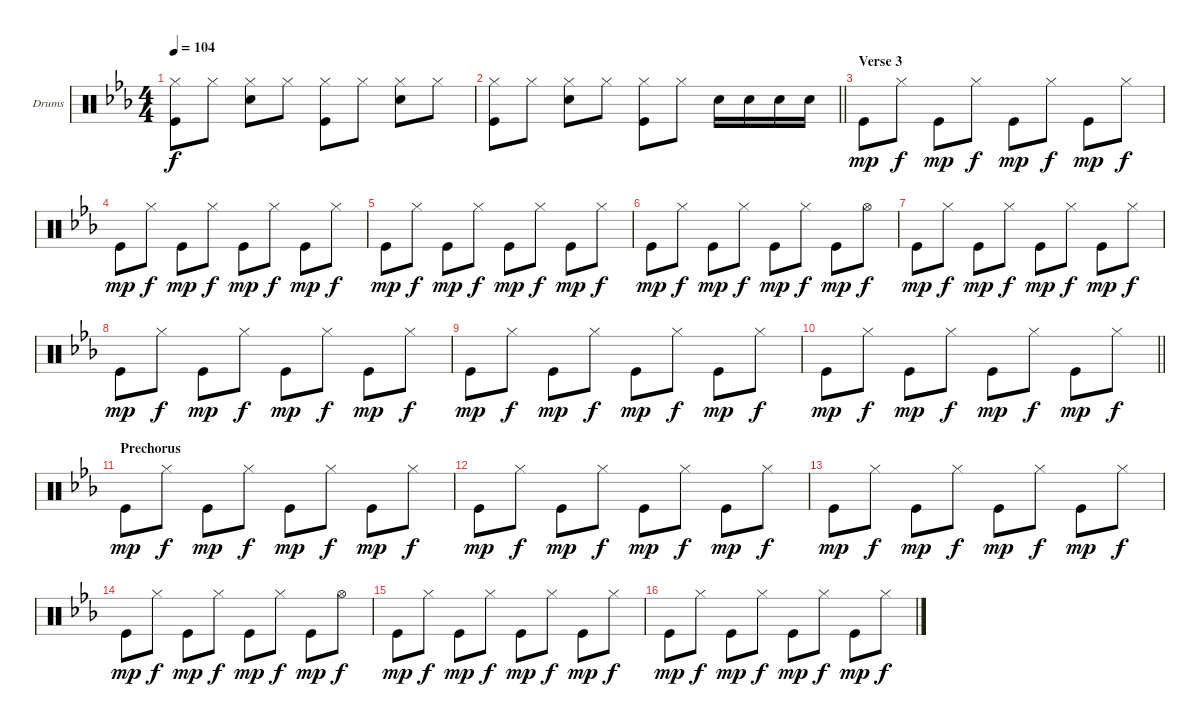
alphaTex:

\bracketExtendMode groupsimilarinstruments
\firstSystemTrackNameOrientation horizontal
\otherSystemsTrackNameOrientation horizontal
\track ("Drumkit" "Drums") {instrument percussion}
\staff {score}
\articulation defaults
\ts (4 4)
\tempo 104
\clef neutral
\ks eb
("Hi-Hat (closed)" "Kick (hit)").8{dy f} "Hi-Hat (closed)".8 ("Hi-Hat (closed)" "Snare (hit) 2").8 "Hi-Hat (closed)".8 ("Hi-Hat (closed)" "Kick (hit)").8 "Hi-Hat (closed)".8 ("Hi-Hat (closed)" "Snare (hit) 2").8 "Hi-Hat (closed)".8 |
\barLineRight lightlight
("Hi-Hat (closed)" "Kick (hit)").8 "Hi-Hat (closed)".8 ("Hi-Hat (closed)" "Snare (hit) 2").8 "Hi-Hat (closed)".8 ("Hi-Hat (closed)" "Kick (hit)").8 "Hi-Hat (closed)".8 "Snare (hit) 2".16 "Snare (hit) 2".16 "Snare (hit) 2".16 "Snare (hit) 2".16 |
\section ("" "Verse 3")
"Kick (hit)".8{dy mp} "Hi-Hat (closed)".8{dy f} "Kick (hit)".8{dy mp} "Hi-Hat (closed)".8{dy f} "Kick (hit)".8{dy mp} "Hi-Hat (closed)".8{dy f} "Kick (hit)".8{dy mp} "Hi-Hat (closed)".8{dy f} |
"Kick (hit)".8{dy mp} "Hi-Hat (closed)".8{dy f} "Kick (hit)".8{dy mp} "Hi-Hat (closed)".8{dy f} "Kick (hit)".8{dy mp} "Hi-Hat (closed)".8{dy f} "Kick (hit)".8{dy mp} "Hi-Hat (closed)".8{dy f} |
"Kick (hit)".8{dy mp} "Hi-Hat (closed)".8{dy f} "Kick (hit)".8{dy mp} "Hi-Hat (closed)".8{dy f} "Kick (hit)".8{dy mp} "Hi-Hat (closed)".8{dy f} "Kick (hit)".8{dy mp} "Hi-Hat (closed)".8{dy f} |
"Kick (hit)".8{dy mp} "Hi-Hat (closed)".8{dy f} "Kick (hit)".8{dy mp} "Hi-Hat (closed)".8{dy f} "Kick (hit)".8{dy mp} "Hi-Hat (closed)".8{dy f} "Kick (hit)".8{dy mp} "Hi-Hat (open)".8{dy f} |
"Kick (hit)".8{dy mp} "Hi-Hat (closed)".8{dy f} "Kick (hit)".8{dy mp} "Hi-Hat (closed)".8{dy f} "Kick (hit)".8{dy mp} "Hi-Hat (closed)".8{dy f} "Kick (hit)".8{dy mp} "Hi-Hat (closed)".8{dy f} |
"Kick (hit)".8{dy mp} "Hi-Hat (closed)".8{dy f} "Kick (hit)".8{dy mp} "Hi-Hat (closed)".8{dy f} "Kick (hit)".8{dy mp} "Hi-Hat (closed)".8{dy f} "Kick (hit)".8{dy mp} "Hi-Hat (closed)".8{dy f} |
"Kick (hit)".8{dy mp} "Hi-Hat (closed)".8{dy f} "Kick (hit)".8{dy mp} "Hi-Hat (closed)".8{dy f} "Kick (hit)".8{dy mp} "Hi-Hat (closed)".8{dy f} "Kick (hit)".8{dy mp} "Hi-Hat (closed)".8{dy f} |
\barLineRight lightlight "Kick (hit)".8{dy mp} "Hi-Hat (closed)".8{dy f} "Kick (hit)".8{dy mp} "Hi-Hat (closed)".8{dy f} "Kick (hit)".8{dy mp} "Hi-Hat (closed)".8{dy f} "Kick (hit)".8{dy mp} "Hi-Hat (closed)".8{dy f}
|
\section ("" "Prechorus")
"Kick (hit)".8{dy mp} "Hi-Hat (closed)".8{dy f} "Kick (hit)".8{dy mp} "Hi-Hat (closed)".8{dy f} "Kick (hit)".8{dy mp} "Hi-Hat (closed)".8{dy f} "Kick (hit)".8{dy mp} "Hi-Hat (closed)".8{dy f} |
"Kick (hit)".8{dy mp} "Hi-Hat (closed)".8{dy f} "Kick (hit)".8{dy mp} "Hi-Hat (closed)".8{dy f} "Kick (hit)".8{dy mp} "Hi-Hat (closed)".8{dy f} "Kick (hit)".8{dy mp} "Hi-Hat (closed)".8{dy f} |
"Kick (hit)".8{dy mp} "Hi-Hat (closed)".8{dy f} "Kick (hit)".8{dy mp} "Hi-Hat (closed)".8{dy f} "Kick (hit)".8{dy mp} "Hi-Hat (closed)".8{dy f} "Kick (hit)".8{dy mp} "Hi-Hat (closed)".8{dy f} |
"Kick (hit)".8{dy mp} "Hi-Hat (closed)".8{dy f} "Kick (hit)".8{dy mp} "Hi-Hat (closed)".8{dy f} "Kick (hit)".8{dy mp} "Hi-Hat (closed)".8{dy f} "Kick (hit)".8{dy mp} "Hi-Hat (open)".8{dy f} |
"Kick (hit)".8{dy mp} "Hi-Hat (closed)".8{dy f} "Kick (hit)".8{dy mp} "Hi-Hat (closed)".8{dy f} "Kick (hit)".8{dy mp} "Hi-Hat (closed)".8{dy f} "Kick (hit)".8{dy mp} "Hi-Hat (closed)".8{dy f} |
"Kick (hit)".8{dy mp} "Hi-Hat (closed)".8{dy f} "Kick (hit)".8{dy mp} "Hi-Hat (closed)".8{dy f} "Kick (hit)".8{dy mp} "Hi-Hat (closed)".8{dy f} "Kick (hit)".8{dy mp} "Hi-Hat (closed)".8{dy f}
